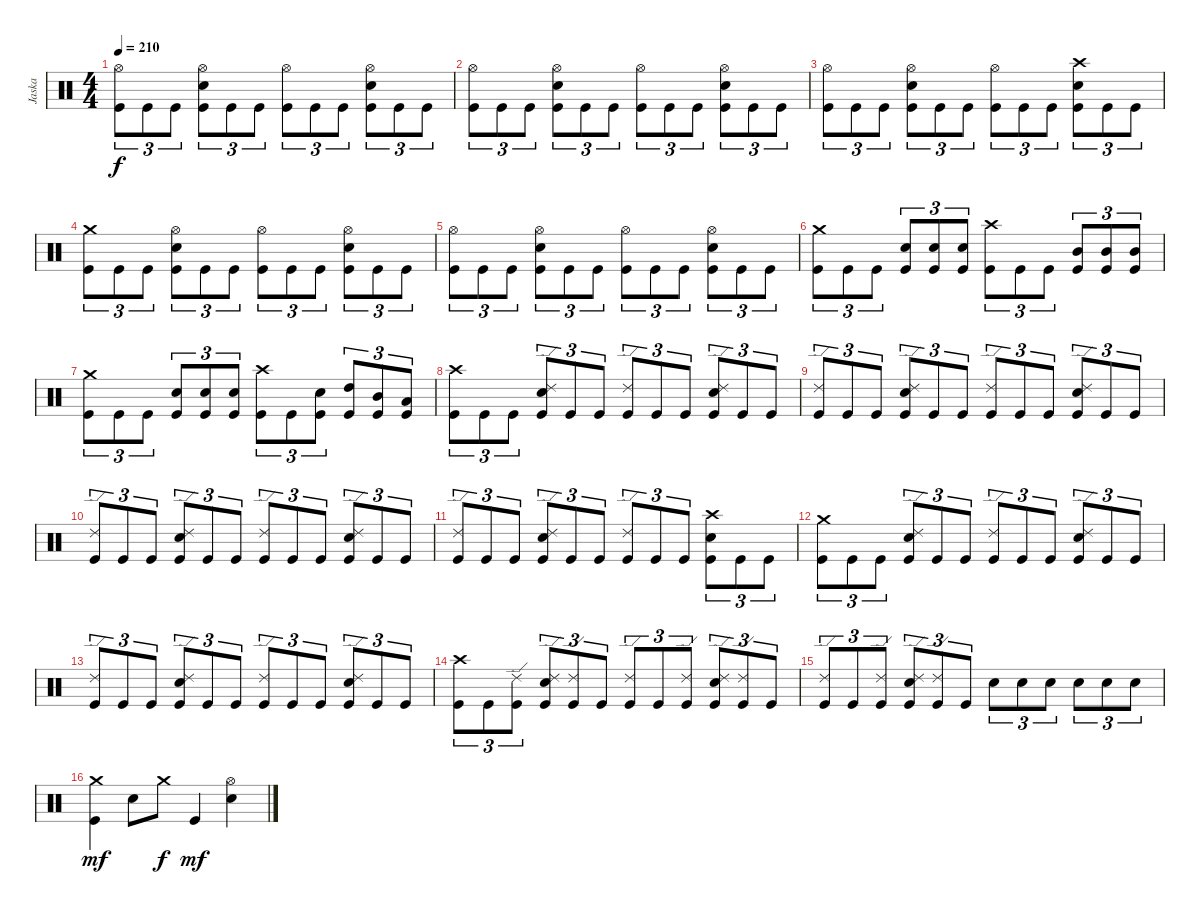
\track ("Jaska" "Jaska") {instrument percussion}
\staff {score}
\articulation defaults
\ts (4 4)
\tempo 210
\clef neutral
\ks c
("Hi-Hat (open)" "Kick (hit)").8{tu (3 2) dy f} "Kick (hit)".8{tu (3 2)} "Kick (hit)".8{tu (3 2)} ("Hi-Hat (open)" "Electric Snare (hit)" "Kick (hit)").8{tu (3 2)} "Kick (hit)".8{tu (3 2)} "Kick (hit)".8{tu (3 2)} ("Hi-Hat (open)" "Kick (hit)").8{tu (3 2)} "Kick (hit)".8{tu (3 2)} "Kick (hit)".8{tu (3 2)} ("Hi-Hat (open)" "Electric Snare (hit)" "Kick (hit)").8{tu (3 2)} "Kick (hit)".8{tu (3 2)} "Kick (hit)".8{tu (3 2)} |
("Hi-Hat (open)" "Kick (hit)").8{tu (3 2)} "Kick (hit)".8{tu (3 2)} "Kick (hit)".8{tu (3 2)} ("Hi-Hat (open)" "Electric Snare (hit)" "Kick (hit)").8{tu (3 2)} "Kick (hit)".8{tu (3 2)} "Kick (hit)".8{tu (3 2)} ("Hi-Hat (open)" "Kick (hit)").8{tu (3 2)} "Kick (hit)".8{tu (3 2)} "Kick (hit)".8{tu (3 2)} ("Hi-Hat (open)" "Electric Snare (hit)" "Kick (hit)").8{tu (3 2)} "Kick (hit)".8{tu (3 2)} "Kick (hit)".8{tu (3 2)} |
("Hi-Hat (open)" "Kick (hit)").8{tu (3 2)} "Kick (hit)".8{tu (3 2)} "Kick (hit)".8{tu (3 2)} ("Hi-Hat (open)" "Electric Snare (hit)" "Kick (hit)").8{tu (3 2)} "Kick (hit)".8{tu (3 2)} "Kick (hit)".8{tu (3 2)} ("Hi-Hat (open)" "Kick (hit)").8{tu (3 2)} "Kick (hit)".8{tu (3 2)} "Kick (hit)".8{tu (3 2)} ("Crash high (hit)" "Electric Snare (hit)" "Kick (hit)").8{tu (3 2)} "Kick (hit)".8{tu (3 2)} "Kick (hit)".8{tu (3 2)} |
("Crash medium (hit)" "Kick (hit)").8{tu (3 2)} "Kick (hit)".8{tu (3 2)} "Kick (hit)".8{tu (3 2)} ("Hi-Hat (open)" "Electric Snare (hit)" "Kick (hit)").8{tu (3 2)} "Kick (hit)".8{tu (3 2)} "Kick (hit)".8{tu (3 2)} ("Hi-Hat (open)" "Kick (hit)").8{tu (3 2)} "Kick (hit)".8{tu (3 2)} "Kick (hit)".8{tu (3 2)} ("Hi-Hat (open)" "Electric Snare (hit)" "Kick (hit)").8{tu (3 2)} "Kick (hit)".8{tu (3 2)} "Kick (hit)".8{tu (3 2)} |
("Hi-Hat (open)" "Kick (hit)").8{tu (3 2)} "Kick (hit)".8{tu (3 2)} "Kick (hit)".8{tu (3 2)} ("Hi-Hat (open)" "Electric Snare (hit)" "Kick (hit)").8{tu (3 2)} "Kick (hit)".8{tu (3 2)} "Kick (hit)".8{tu (3 2)} ("Hi-Hat (open)" "Kick (hit)").8{tu (3 2)} "Kick (hit)".8{tu (3 2)} "Kick (hit)".8{tu (3 2)} ("Hi-Hat (open)" "Electric Snare (hit)" "Kick (hit)").8{tu (3 2)} "Kick (hit)".8{tu (3 2)} "Kick (hit)".8{tu (3 2)} |
("Crash medium (hit)" "Kick (hit)").8{tu (3 2)} "Kick (hit)".8{tu (3 2)} "Kick (hit)".8{tu (3 2)} ("Electric Snare (hit)" "Kick (hit)").8{tu (3 2)} ("Electric Snare (hit)" "Kick (hit)").8{tu (3 2)} ("Electric Snare (hit)" "Kick (hit)").8{tu (3 2)} ("Crash high (hit)" "Kick (hit)").8{tu (3 2)} "Kick (hit)".8{tu (3 2)} "Kick (hit)".8{tu (3 2)} ("Mid Tom (hit)" "Kick (hit)").8{tu (3 2)} ("Mid Tom (hit)" "Kick (hit)").8{tu (3 2)} ("Mid Tom (hit)" "Kick (hit)").8{tu (3 2)} |
("Crash medium (hit)" "Kick (hit)").8{tu (3 2)} "Kick (hit)".8{tu (3 2)} "Kick (hit)".8{tu (3 2)} ("Electric Snare (hit)" "Kick (hit)").8{tu (3 2)} ("Electric Snare (hit)" "Kick (hit)").8{tu (3 2)} ("Electric Snare (hit)" "Kick (hit)").8{tu (3 2)} ("Crash high (hit)" "Kick (hit)").8{tu (3 2)} "Kick (hit)".8{tu (3 2)} ("Electric Snare (hit)" "Kick (hit)").8{tu (3 2)} ("High Tom (hit)" "Kick (hit)").8{tu (3 2)} ("Mid Tom (hit)" "Kick (hit)").8{tu (3 2)} ("Low Tom (hit)" "Kick (hit)").8{tu (3 2)} |
("Crash high (hit)" "Kick (hit)").8{tu (3 2)} "Kick (hit)".8{tu (3 2)} "Kick (hit)".8{tu (3 2)} ("Ride (edge) 2" "Electric Snare (hit)" "Kick (hit)").8{tu (3 2)} "Kick (hit)".8{tu (3 2)} "Kick (hit)".8{tu (3 2)} ("Ride (edge) 2" "Kick (hit)").8{tu (3 2)} "Kick (hit)".8{tu (3 2)} "Kick (hit)".8{tu (3 2)} ("Ride (edge) 2" "Electric Snare (hit)" "Kick (hit)").8{tu (3 2)} "Kick (hit)".8{tu (3 2)} "Kick (hit)".8{tu (3 2)} |
("Ride (edge) 2" "Kick (hit)").8{tu (3 2)} "Kick (hit)".8{tu (3 2)} "Kick (hit)".8{tu (3 2)} ("Ride (edge) 2" "Electric Snare (hit)" "Kick (hit)").8{tu (3 2)} "Kick (hit)".8{tu (3 2)} "Kick (hit)".8{tu (3 2)} ("Ride (edge) 2" "Kick (hit)").8{tu (3 2)} "Kick (hit)".8{tu (3 2)} "Kick (hit)".8{tu (3 2)} ("Ride (edge) 2" "Electric Snare (hit)" "Kick (hit)").8{tu (3 2)} "Kick (hit)".8{tu (3 2)} "Kick (hit)".8{tu (3 2)} |
("Ride (edge) 2" "Kick (hit)").8{tu (3 2)} "Kick (hit)".8{tu (3 2)} "Kick (hit)".8{tu (3 2)} ("Ride (edge) 2" "Electric Snare (hit)" "Kick (hit)").8{tu (3 2)} "Kick (hit)".8{tu (3 2)} "Kick (hit)".8{tu (3 2)} ("Ride (edge) 2" "Kick (hit)").8{tu (3 2)} "Kick (hit)".8{tu (3 2)} "Kick (hit)".8{tu (3 2)} ("Ride (edge) 2" "Electric Snare (hit)" "Kick (hit)").8{tu (3 2)} "Kick (hit)".8{tu (3 2)} "Kick (hit)".8{tu (3 2)} |
("Ride (edge) 2" "Kick (hit)").8{tu (3 2)} "Kick (hit)".8{tu (3 2)} "Kick (hit)".8{tu (3 2)} ("Ride (edge) 2" "Electric Snare (hit)" "Kick (hit)").8{tu (3 2)} "Kick (hit)".8{tu (3 2)} "Kick (hit)".8{tu (3 2)} ("Ride (edge) 2" "Kick (hit)").8{tu (3 2)} "Kick (hit)".8{tu (3 2)} "Kick (hit)".8{tu (3 2)} ("Crash high (hit)" "Electric Snare (hit)" "Kick (hit)").8{tu (3 2)} "Kick (hit)".8{tu (3 2)} "Kick (hit)".8{tu (3 2)} |
("Crash medium (hit)" "Kick (hit)").8{tu (3 2)} "Kick (hit)".8{tu (3 2)} "Kick (hit)".8{tu (3 2)} ("Ride (edge) 2" "Electric Snare (hit)" "Kick (hit)").8{tu (3 2)} "Kick (hit)".8{tu (3 2)} "Kick (hit)".8{tu (3 2)} ("Ride (edge) 2" "Kick (hit)").8{tu (3 2)} "Kick (hit)".8{tu (3 2)} "Kick (hit)".8{tu (3 2)} ("Ride (edge) 2" "Electric Snare (hit)" "Kick (hit)").8{tu (3 2)} "Kick (hit)".8{tu (3 2)} "Kick (hit)".8{tu (3 2)} |
("Ride (edge) 2" "Kick (hit)").8{tu (3 2)} "Kick (hit)".8{tu (3 2)} "Kick (hit)".8{tu (3 2)} ("Ride (edge) 2" "Electric Snare (hit)" "Kick (hit)").8{tu (3 2)} "Kick (hit)".8{tu (3 2)} "Kick (hit)".8{tu (3 2)} ("Ride (edge) 2" "Kick (hit)").8{tu (3 2)} "Kick (hit)".8{tu (3 2)} "Kick (hit)".8{tu (3 2)} ("Ride (edge) 2" "Electric Snare (hit)" "Kick (hit)").8{tu (3 2)} "Kick (hit)".8{tu (3 2)} "Kick (hit)".8{tu (3 2)} |
("Crash high (hit)" "Kick (hit)").8{tu (3 2)} "Kick (hit)".8{tu (3 2)} ("Ride (edge) 2" "Kick (hit)").8{tu (3 2)} ("Ride (edge) 2" "Electric Snare (hit)" "Kick (hit)").8{tu (3 2)} ("Ride (edge) 2" "Kick (hit)").8{tu (3 2)} "Kick (hit)".8{tu (3 2)} ("Ride (edge) 2" "Kick (hit)").8{tu (3 2)} "Kick (hit)".8{tu (3 2)} ("Ride (edge) 2" "Kick (hit)").8{tu (3 2)} ("Ride (edge) 2" "Electric Snare (hit)" "Kick (hit)").8{tu (3 2)} ("Ride (edge) 2" "Kick (hit)").8{tu (3 2)} "Kick (hit)".8{tu (3 2)} |
("Ride (edge) 2" "Kick (hit)").8{tu (3 2)} "Kick (hit)".8{tu (3 2)} ("Ride (edge) 2" "Kick (hit)").8{tu (3 2)} ("Ride (edge) 2" "Electric Snare (hit)" "Kick (hit)").8{tu (3 2)} ("Ride (edge) 2" "Kick (hit)").8{tu (3 2)} "Kick (hit)".8{tu (3 2)} "Electric Snare (hit)".8{tu (3 2)} "Electric Snare (hit)".8{tu (3 2)} "Electric Snare (hit)".8{tu (3 2)} "Electric Snare (hit)".8{tu (3 2)} "Electric Snare (hit)".8{tu (3 2)} "Electric Snare (hit)".8{tu (3 2)} |
("Crash medium (hit)" "Kick (hit)").4{dy mf} "Electric Snare (hit)".8 "Crash medium (hit)".8{dy f} "Kick (hit)".4{dy mf} ("Hi-Hat (open)" "Electric Snare (hit)").4
